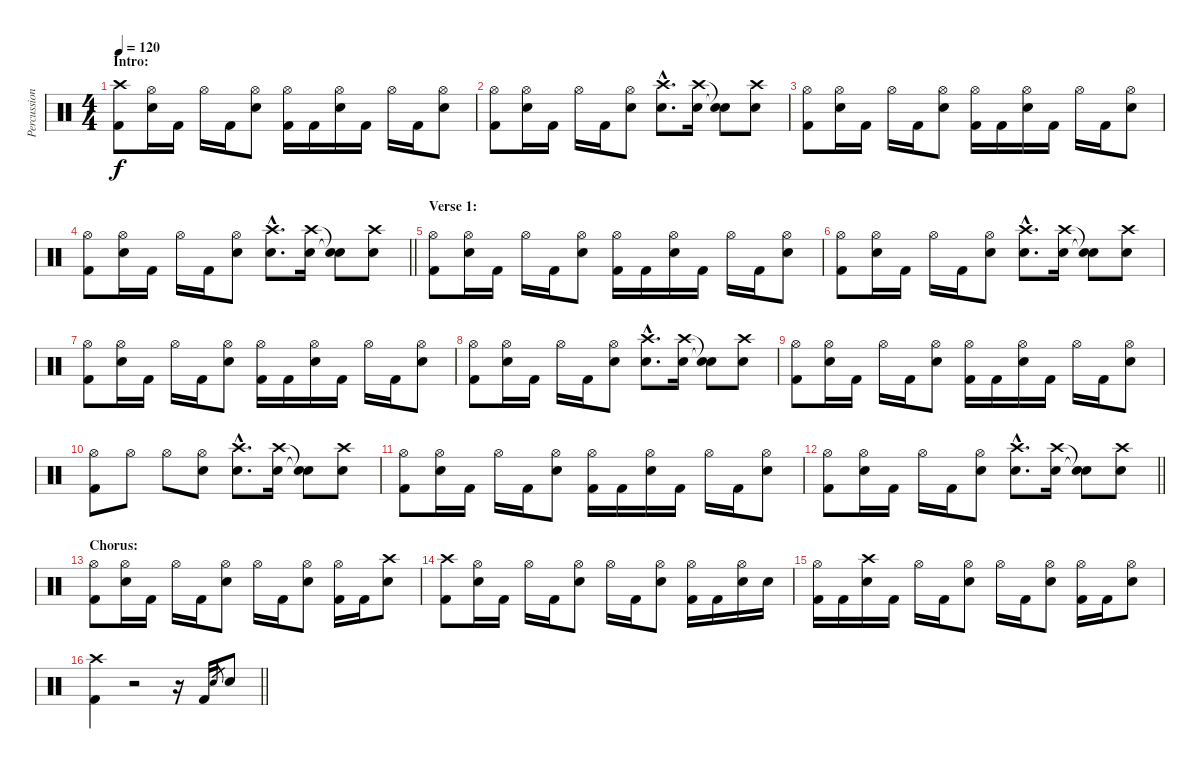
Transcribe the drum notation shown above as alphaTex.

\track ("Percussion" "Percussion") {instrument percussion}
\staff {score}
\articulation defaults
\ts (4 4)
\section ("" "Intro:")
\tempo 120
\clef neutral
\ks c
("Crash high (hit)" "Kick (hit) 2").8{dy f} ("Hi-Hat (open)" "Electric Snare (hit)").16 "Kick (hit) 2".16 "Hi-Hat (open)".16 "Kick (hit) 2".16 ("Hi-Hat (open)" "Electric Snare (hit)").8 ("Hi-Hat (open)" "Kick (hit) 2").16 "Kick (hit) 2".16 ("Hi-Hat (open)" "Electric Snare (hit)").16 "Kick (hit) 2".16 "Hi-Hat (open)".16 "Kick (hit) 2".16 ("Hi-Hat (open)" "Electric Snare (hit)").8 |
("Hi-Hat (open)" "Kick (hit) 2").8 ("Hi-Hat (open)" "Electric Snare (hit)").16 "Kick (hit) 2".16 "Hi-Hat (open)".16 "Kick (hit) 2".16 ("Hi-Hat (open)" "Electric Snare (hit)").8 ("Crash high (hit)"{hac} "Electric Snare (hit)"{hac}).8{d} ("Crash high (hit)" "Electric Snare (hit)").16 ("Snare (hit)"{t} "Snare (hit)"{t}).8 ("Crash high (hit)" "Electric Snare (hit)").8 |
("Hi-Hat (open)" "Kick (hit) 2").8 ("Hi-Hat (open)" "Electric Snare (hit)").16 "Kick (hit) 2".16 "Hi-Hat (open)".16 "Kick (hit) 2".16 ("Hi-Hat (open)" "Electric Snare (hit)").8 ("Hi-Hat (open)" "Kick (hit) 2").16 "Kick (hit) 2".16 ("Hi-Hat (open)" "Electric Snare (hit)").16 "Kick (hit) 2".16 "Hi-Hat (open)".16 "Kick (hit) 2".16 ("Hi-Hat (open)" "Electric Snare (hit)").8 |
\barLineRight lightlight
("Hi-Hat (open)" "Kick (hit) 2").8 ("Hi-Hat (open)" "Electric Snare (hit)").16 "Kick (hit) 2".16 "Hi-Hat (open)".16 "Kick (hit) 2".16 ("Hi-Hat (open)" "Electric Snare (hit)").8 ("Crash high (hit)"{hac} "Electric Snare (hit)"{hac}).8{d} ("Crash high (hit)" "Electric Snare (hit)").16 ("Snare (hit)"{t} "Snare (hit)"{t}).8 ("Crash high (hit)" "Electric Snare (hit)").8 |
\section ("" "Verse 1:")
("Hi-Hat (open)" "Kick (hit) 2").8 ("Hi-Hat (open)" "Electric Snare (hit)").16 "Kick (hit) 2".16 "Hi-Hat (open)".16 "Kick (hit) 2".16 ("Hi-Hat (open)" "Electric Snare (hit)").8 ("Hi-Hat (open)" "Kick (hit) 2").16 "Kick (hit) 2".16 ("Hi-Hat (open)" "Electric Snare (hit)").16 "Kick (hit) 2".16 "Hi-Hat (open)".16 "Kick (hit) 2".16 ("Hi-Hat (open)" "Electric Snare (hit)").8 |
("Hi-Hat (open)" "Kick (hit) 2").8 ("Hi-Hat (open)" "Electric Snare (hit)").16 "Kick (hit) 2".16 "Hi-Hat (open)".16 "Kick (hit) 2".16 ("Hi-Hat (open)" "Electric Snare (hit)").8 ("Crash high (hit)"{hac} "Electric Snare (hit)"{hac}).8{d} ("Crash high (hit)" "Electric Snare (hit)").16 ("Snare (hit)"{t} "Snare (hit)"{t}).8 ("Crash high (hit)" "Electric Snare (hit)").8 |
("Hi-Hat (open)" "Kick (hit) 2").8 ("Hi-Hat (open)" "Electric Snare (hit)").16 "Kick (hit) 2".16 "Hi-Hat (open)".16 "Kick (hit) 2".16 ("Hi-Hat (open)" "Electric Snare (hit)").8 ("Hi-Hat (open)" "Kick (hit) 2").16 "Kick (hit) 2".16 ("Hi-Hat (open)" "Electric Snare (hit)").16 "Kick (hit) 2".16 "Hi-Hat (open)".16 "Kick (hit) 2".16 ("Hi-Hat (open)" "Electric Snare (hit)").8 |
("Hi-Hat (open)" "Kick (hit) 2").8 ("Hi-Hat (open)" "Electric Snare (hit)").16 "Kick (hit) 2".16 "Hi-Hat (open)".16 "Kick (hit) 2".16 ("Hi-Hat (open)" "Electric Snare (hit)").8 ("Crash high (hit)"{hac} "Electric Snare (hit)"{hac}).8{d} ("Crash high (hit)" "Electric Snare (hit)").16 ("Snare (hit)"{t} "Snare (hit)"{t}).8 ("Crash high (hit)" "Electric Snare (hit)").8 |
("Hi-Hat (open)" "Kick (hit) 2").8 ("Hi-Hat (open)" "Electric Snare (hit)").16 "Kick (hit) 2".16 "Hi-Hat (open)".16 "Kick (hit) 2".16 ("Hi-Hat (open)" "Electric Snare (hit)").8 ("Hi-Hat (open)" "Kick (hit) 2").16 "Kick (hit) 2".16 ("Hi-Hat (open)" "Electric Snare (hit)").16 "Kick (hit) 2".16 "Hi-Hat (open)".16 "Kick (hit) 2".16 ("Hi-Hat (open)" "Electric Snare (hit)").8 |
("Hi-Hat (open)" "Kick (hit) 2").8 "Hi-Hat (open)".8 "Hi-Hat (open)".8 ("Hi-Hat (open)" "Electric Snare (hit)").8 ("Crash high (hit)"{hac} "Electric Snare (hit)"{hac}).8{d} ("Crash high (hit)" "Electric Snare (hit)").16 ("Snare (hit)"{t} "Snare (hit)"{t}).8 ("Crash high (hit)" "Electric Snare (hit)").8 |
("Hi-Hat (open)" "Kick (hit) 2").8 ("Hi-Hat (open)" "Electric Snare (hit)").16 "Kick (hit) 2".16 "Hi-Hat (open)".16 "Kick (hit) 2".16 ("Hi-Hat (open)" "Electric Snare (hit)").8 ("Hi-Hat (open)" "Kick (hit) 2").16 "Kick (hit) 2".16 ("Hi-Hat (open)" "Electric Snare (hit)").16 "Kick (hit) 2".16 "Hi-Hat (open)".16 "Kick (hit) 2".16 ("Hi-Hat (open)" "Electric Snare (hit)").8 |
\barLineRight lightlight
("Hi-Hat (open)" "Kick (hit) 2").8 ("Hi-Hat (open)" "Electric Snare (hit)").16 "Kick (hit) 2".16 "Hi-Hat (open)".16 "Kick (hit) 2".16 ("Hi-Hat (open)" "Electric Snare (hit)").8 ("Crash high (hit)"{hac} "Electric Snare (hit)"{hac}).8{d} ("Crash high (hit)" "Electric Snare (hit)").16 ("Snare (hit)"{t} "Snare (hit)"{t}).8 ("Crash high (hit)" "Electric Snare (hit)").8 |
\section ("" "Chorus:")
("Hi-Hat (open)" "Kick (hit) 2").8 ("Hi-Hat (open)" "Electric Snare (hit)").16 "Kick (hit) 2".16 "Hi-Hat (open)".16 "Kick (hit) 2".16 ("Hi-Hat (open)" "Electric Snare (hit)").8 "Hi-Hat (open)".16 "Kick (hit) 2".16 ("Hi-Hat (open)" "Electric Snare (hit)").8 ("Hi-Hat (open)" "Kick (hit) 2").16 "Kick (hit) 2".16 ("Crash high (hit)" "Electric Snare (hit)").8 |
("Crash high (hit)" "Kick (hit) 2").8 ("Hi-Hat (open)" "Electric Snare (hit)").16 "Kick (hit) 2".16 "Hi-Hat (open)".16 "Kick (hit) 2".16 ("Hi-Hat (open)" "Electric Snare (hit)").8 "Hi-Hat (open)".16 "Kick (hit) 2".16 ("Hi-Hat (open)" "Electric Snare (hit)").8 ("Hi-Hat (open)" "Kick (hit) 2").16 "Kick (hit) 2".16 ("Hi-Hat (open)" "Electric Snare (hit)").16 "Electric Snare (hit)".16 |
("Hi-Hat (open)" "Kick (hit) 2").16 "Kick (hit) 2".16 ("Crash high (hit)" "Electric Snare (hit)").16 "Kick (hit) 2".16 "Hi-Hat (open)".16 "Kick (hit) 2".16 ("Hi-Hat (open)" "Electric Snare (hit)").8 "Hi-Hat (open)".16 "Kick (hit) 2".16 ("Hi-Hat (open)" "Electric Snare (hit)").8 ("Hi-Hat (open)" "Kick (hit) 2").16 "Kick (hit) 2".16 ("Hi-Hat (open)" "Electric Snare (hit)").8 |
\barLineRight lightlight
("Crash high (hit)" "Kick (hit) 2").4 r.2 r.16 "Kick (hit) 2".16 "Electric Snare (hit)".8{gr} "Electric Snare (hit)".8
